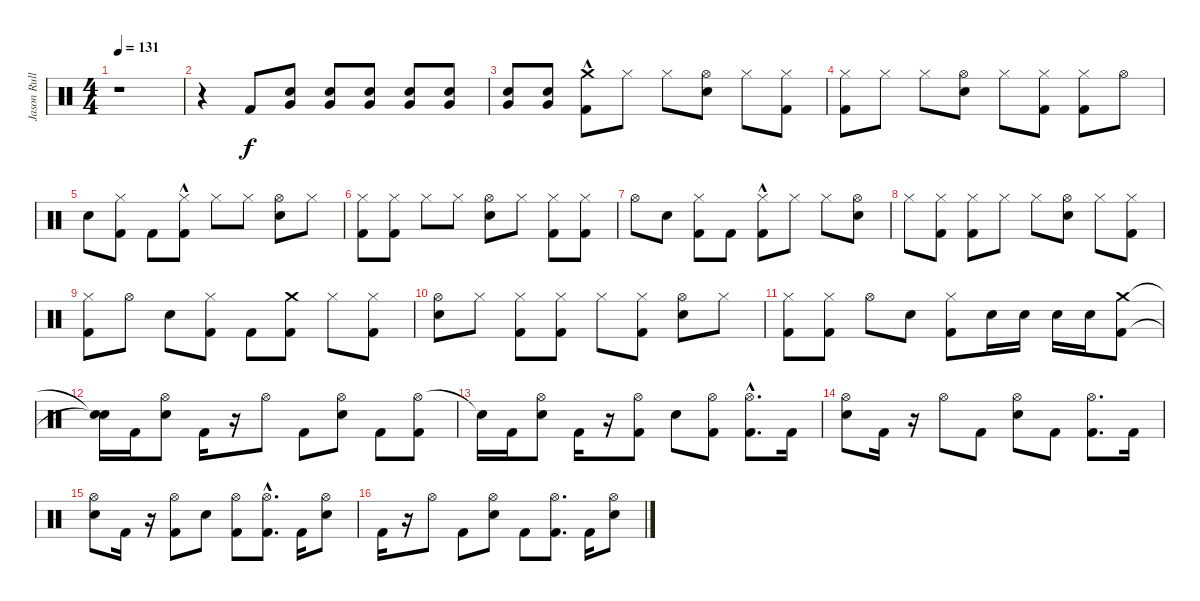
\track ("Jason Rullo (Drums)" "Jason Rull") {instrument percussion}
\staff {score}
\articulation defaults
\ts (4 4)
\tempo 131
\clef neutral
\ks c
r.1{dy f} |
r.4 "Kick (hit) 2".8{volume 6} ("Very Low Tom (hit)" "Electric Snare (hit)").8{volume 7} ("Very Low Tom (hit)" "Electric Snare (hit)").8{volume 9} ("Very Low Tom (hit)" "Electric Snare (hit)").8{volume 10} ("Very Low Tom (hit)" "Electric Snare (hit)").8{volume 11} ("Very Low Tom (hit)" "Electric Snare (hit)").8{volume 12} |
("Very Low Tom (hit)" "Electric Snare (hit)").8{volume 14} ("Very Low Tom (hit)" "Electric Snare (hit)").8{volume 15} ("Crash medium (hit)" "Kick (hit) 2"{hac}).8{volume 16} "Hi-Hat (closed)".8 "Hi-Hat (closed)".8 ("Hi-Hat (open)" "Electric Snare (hit)").8 "Hi-Hat (closed)".8 ("Hi-Hat (closed)" "Kick (hit) 2").8 |
("Hi-Hat (closed)" "Kick (hit) 2").8 "Hi-Hat (closed)".8 "Hi-Hat (closed)".8 ("Hi-Hat (open)" "Electric Snare (hit)").8 "Hi-Hat (closed)".8 ("Hi-Hat (closed)" "Kick (hit) 2").8 ("Hi-Hat (closed)" "Kick (hit) 2").8 "Hi-Hat (open)".8 |
"Electric Snare (hit)".8 ("Hi-Hat (closed)" "Kick (hit) 2").8 "Kick (hit) 2".8 ("Hi-Hat (closed)" "Kick (hit) 2"{hac}).8 "Hi-Hat (closed)".8 "Hi-Hat (closed)".8 ("Hi-Hat (open)" "Electric Snare (hit)").8 "Hi-Hat (closed)".8 |
("Hi-Hat (closed)" "Kick (hit) 2").8 ("Hi-Hat (closed)" "Kick (hit) 2").8 "Hi-Hat (closed)".8 "Hi-Hat (closed)".8 ("Hi-Hat (open)" "Electric Snare (hit)").8 "Hi-Hat (closed)".8 ("Hi-Hat (closed)" "Kick (hit) 2").8 ("Hi-Hat (closed)" "Kick (hit) 2").8 |
"Hi-Hat (open)".8 "Electric Snare (hit)".8 ("Hi-Hat (closed)" "Kick (hit) 2").8 "Kick (hit) 2".8 ("Hi-Hat (closed)" "Kick (hit) 2"{hac}).8 "Hi-Hat (closed)".8 "Hi-Hat (closed)".8 ("Hi-Hat (open)" "Electric Snare (hit)").8 |
"Hi-Hat (closed)".8 ("Hi-Hat (closed)" "Kick (hit) 2").8 ("Hi-Hat (closed)" "Kick (hit) 2").8 "Hi-Hat (closed)".8 "Hi-Hat (closed)".8 ("Hi-Hat (open)" "Electric Snare (hit)").8 "Hi-Hat (closed)".8 ("Hi-Hat (closed)" "Kick (hit) 2").8 |
("Hi-Hat (closed)" "Kick (hit) 2").8 "Hi-Hat (open)".8 "Electric Snare (hit)".8 ("Hi-Hat (closed)" "Kick (hit) 2").8 "Kick (hit) 2".8 ("Crash medium (hit)" "Kick (hit) 2").8 "Hi-Hat (closed)".8 ("Kick (hit) 2" "Hi-Hat (closed)").8 |
("Hi-Hat (open)" "Electric Snare (hit)").8 "Hi-Hat (closed)".8 ("Hi-Hat (closed)" "Kick (hit) 2").8 ("Hi-Hat (closed)" "Kick (hit) 2").8 "Hi-Hat (closed)".8 ("Kick (hit) 2" "Hi-Hat (closed)").8 ("Hi-Hat (open)" "Electric Snare (hit)").8 "Hi-Hat (closed)".8 |
("Hi-Hat (closed)" "Kick (hit) 2").8 ("Hi-Hat (closed)" "Kick (hit) 2").8 "Hi-Hat (open)".8 "Electric Snare (hit)".8 ("Hi-Hat (closed)" "Kick (hit) 2").8 "Electric Snare (hit)".16 "Electric Snare (hit)".16 "Electric Snare (hit)".16 "Electric Snare (hit)".16 ("Crash medium (hit)" "Kick (hit) 2").8 |
("Snare (hit)"{t} "Snare (hit)"{t}).16 "Kick (hit) 2".16 ("Hi-Hat (open)" "Electric Snare (hit)").8 "Kick (hit) 2".16 r.16 "Hi-Hat (open)".8 "Kick (hit) 2".8 ("Hi-Hat (open)" "Electric Snare (hit)").8 "Kick (hit) 2".8 ("Hi-Hat (open)" "Kick (hit) 2").8 |
"Snare (hit)"{t}.16 "Kick (hit) 2".16 ("Electric Snare (hit)" "Hi-Hat (open)").8 "Kick (hit) 2".16 r.16 ("Kick (hit) 2" "Hi-Hat (open)").8 "Electric Snare (hit)".8 ("Kick (hit) 2" "Hi-Hat (open)").8 ("Hi-Hat (open)" "Kick (hit) 2"{hac}).8{d} "Kick (hit) 2".16 |
("Hi-Hat (open)" "Electric Snare (hit)").8 "Kick (hit) 2".16 r.16 "Hi-Hat (open)".8 "Kick (hit) 2".8 ("Hi-Hat (open)" "Electric Snare (hit)").8 "Kick (hit) 2".8 ("Hi-Hat (open)" "Kick (hit) 2").8{d} "Kick (hit) 2".16 |
("Electric Snare (hit)" "Hi-Hat (open)").8 "Kick (hit) 2".16 r.16 ("Kick (hit) 2" "Hi-Hat (open)").8 "Electric Snare (hit)".8 ("Kick (hit) 2" "Hi-Hat (open)").8 ("Hi-Hat (open)" "Kick (hit) 2"{hac}).8{d} "Kick (hit) 2".16 ("Hi-Hat (open)" "Electric Snare (hit)").8 |
"Kick (hit) 2".16 r.16 "Hi-Hat (open)".8 "Kick (hit) 2".8 ("Hi-Hat (open)" "Electric Snare (hit)").8 "Kick (hit) 2".8 ("Hi-Hat (open)" "Kick (hit) 2").8{d} "Kick (hit) 2".16 ("Electric Snare (hit)" "Hi-Hat (open)").8
